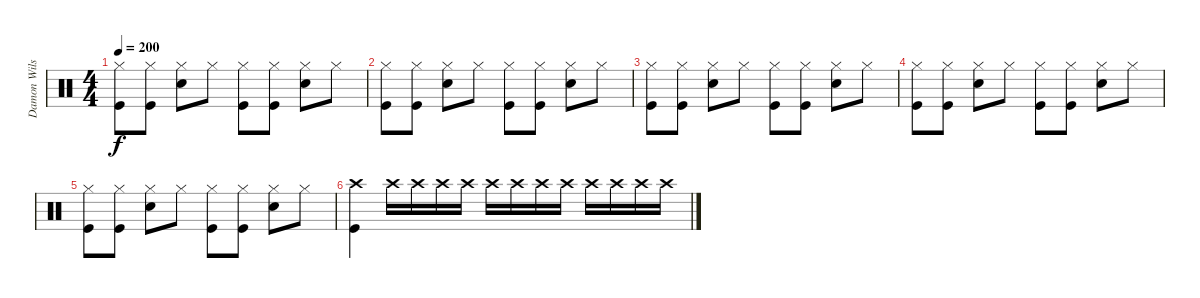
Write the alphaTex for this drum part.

\track ("Damon Wilson" "Damon Wils") {instrument percussion}
\staff {score}
\articulation defaults
\ts (4 4)
\tempo 200
\clef neutral
\ks c
("Hi-Hat (closed)" "Kick (hit)").8{dy f} ("Hi-Hat (closed)" "Kick (hit)").8 ("Hi-Hat (closed)" "Snare (hit) 2").8 "Hi-Hat (closed)".8 ("Hi-Hat (closed)" "Kick (hit)").8 ("Hi-Hat (closed)" "Kick (hit)").8 ("Hi-Hat (closed)" "Snare (hit) 2").8 "Hi-Hat (closed)".8 |
("Hi-Hat (closed)" "Kick (hit)").8 ("Hi-Hat (closed)" "Kick (hit)").8 ("Hi-Hat (closed)" "Snare (hit) 2").8 "Hi-Hat (closed)".8 ("Hi-Hat (closed)" "Kick (hit)").8 ("Hi-Hat (closed)" "Kick (hit)").8 ("Hi-Hat (closed)" "Snare (hit) 2").8 "Hi-Hat (closed)".8 |
("Hi-Hat (closed)" "Kick (hit)").8 ("Hi-Hat (closed)" "Kick (hit)").8 ("Hi-Hat (closed)" "Snare (hit) 2").8 "Hi-Hat (closed)".8 ("Hi-Hat (closed)" "Kick (hit)").8 ("Hi-Hat (closed)" "Kick (hit)").8 ("Hi-Hat (closed)" "Snare (hit) 2").8 "Hi-Hat (closed)".8 |
("Hi-Hat (closed)" "Kick (hit)").8 ("Hi-Hat (closed)" "Kick (hit)").8 ("Hi-Hat (closed)" "Snare (hit) 2").8 "Hi-Hat (closed)".8 ("Hi-Hat (closed)" "Kick (hit)").8 ("Hi-Hat (closed)" "Kick (hit)").8 ("Hi-Hat (closed)" "Snare (hit) 2").8 "Hi-Hat (closed)".8 |
("Hi-Hat (closed)" "Kick (hit)").8 ("Hi-Hat (closed)" "Kick (hit)").8 ("Hi-Hat (closed)" "Snare (hit) 2").8 "Hi-Hat (closed)".8 ("Hi-Hat (closed)" "Kick (hit)").8 ("Hi-Hat (closed)" "Kick (hit)").8 ("Hi-Hat (closed)" "Snare (hit) 2").8 "Hi-Hat (closed)".8 |
("Crash high (hit)" "Kick (hit)").4 "Crash high (hit)".16 "Crash high (hit)".16 "Crash high (hit)".16 "Crash high (hit)".16 "Crash high (hit)".16 "Crash high (hit)".16 "Crash high (hit)".16 "Crash high (hit)".16 "Crash high (hit)".16 "Crash high (hit)".16 "Crash high (hit)".16 "Crash high (hit)".16
